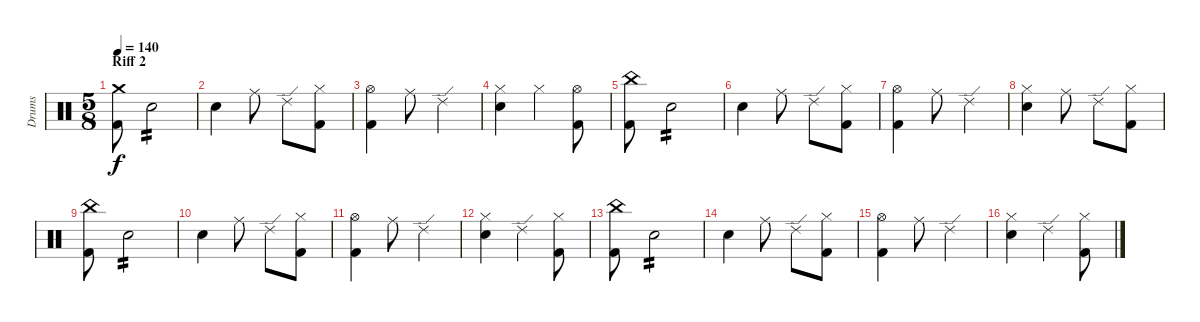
\track ("Drums" "Drums") {instrument percussion}
\staff {score}
\articulation defaults
\ts (5 8)
\section ("" "Riff 2")
\tempo 140
\clef neutral
\ks c
("Crash medium (hit)" "Kick (hit) 2").8{dy f} "Electric Snare (hit)".2{tp 2} |
"Electric Snare (hit)".4 "Ride (middle)".8 "Ride (edge) 2".8 ("Hi-Hat (closed)" "Kick (hit) 2").8 |
("Hi-Hat (open)" "Kick (hit) 2").4 "Ride (middle)".8 "Ride (edge) 2".4 |
("Hi-Hat (closed)" "Electric Snare (hit)").4 "Hi-Hat (closed)".4 ("Hi-Hat (open)" "Kick (hit) 2").8 |
("China (hit)" "Kick (hit) 2").8 "Electric Snare (hit)".2{tp 2} |
"Electric Snare (hit)".4 "Ride (middle)".8 "Ride (edge) 2".8 ("Hi-Hat (closed)" "Kick (hit) 2").8 |
("Hi-Hat (open)" "Kick (hit) 2").4 "Ride (middle)".8 "Ride (edge) 2".4 |
("Hi-Hat (closed)" "Electric Snare (hit)").4 "Ride (middle)".8 "Ride (edge) 2".8 ("Hi-Hat (closed)" "Kick (hit) 2").8 |
("China (hit)" "Kick (hit) 2").8 "Electric Snare (hit)".2{tp 2} |
"Electric Snare (hit)".4 "Ride (middle)".8 "Ride (edge) 2".8 ("Hi-Hat (closed)" "Kick (hit) 2").8 |
("Hi-Hat (open)" "Kick (hit) 2").4 "Ride (middle)".8 "Ride (edge) 2".4 |
("Hi-Hat (closed)" "Electric Snare (hit)").4 "Ride (edge) 2".4 ("Hi-Hat (closed)" "Kick (hit) 2").8 |
("China (hit)" "Kick (hit) 2").8 "Electric Snare (hit)".2{tp 2} |
"Electric Snare (hit)".4 "Ride (middle)".8 "Ride (edge) 2".8 ("Hi-Hat (closed)" "Kick (hit) 2").8 |
("Hi-Hat (open)" "Kick (hit) 2").4 "Ride (middle)".8 "Ride (edge) 2".4 |
("Hi-Hat (closed)" "Electric Snare (hit)").4 "Ride (edge) 2".4 ("Hi-Hat (closed)" "Kick (hit) 2").8
